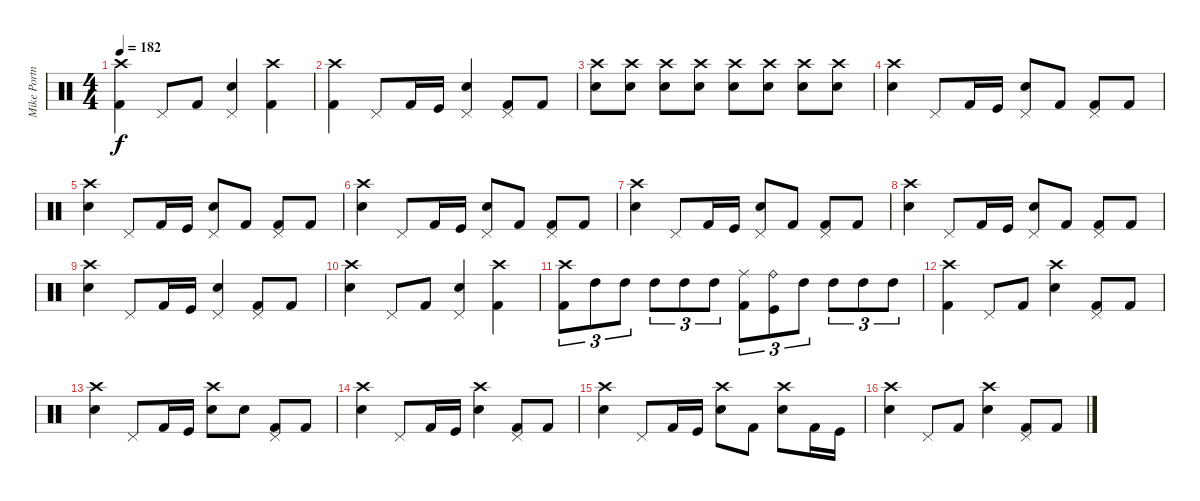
\track ("Mike Portnoy" "Mike Portn") {instrument percussion}
\staff {score}
\articulation defaults
\ts (4 4)
\tempo 182
\clef neutral
\ks c
("Crash high (hit)" "Kick (hit) 2").4{dy f} "Pedal Hi-Hat (hit)".8 "Kick (hit) 2".8 ("Pedal Hi-Hat (hit)" "Electric Snare (hit)").4 ("Crash high (hit)" "Kick (hit) 2").4 |
("Crash high (hit)" "Kick (hit) 2").4 "Pedal Hi-Hat (hit)".8 "Kick (hit) 2".16 "Kick (hit)".16 ("Pedal Hi-Hat (hit)" "Electric Snare (hit)").4 ("Pedal Hi-Hat (hit)" "Kick (hit) 2").8 "Kick (hit) 2".8 |
("Crash high (hit)" "Electric Snare (hit)").8 ("Crash high (hit)" "Electric Snare (hit)").8 ("Crash high (hit)" "Electric Snare (hit)").8 ("Crash high (hit)" "Electric Snare (hit)").8 ("Crash high (hit)" "Electric Snare (hit)").8 ("Crash high (hit)" "Electric Snare (hit)").8 ("Crash high (hit)" "Electric Snare (hit)").8 ("Crash high (hit)" "Electric Snare (hit)").8 |
("Crash high (hit)" "Electric Snare (hit)").4 "Pedal Hi-Hat (hit)".8 "Kick (hit) 2".16 "Kick (hit)".16 ("Pedal Hi-Hat (hit)" "Electric Snare (hit)").8 "Kick (hit) 2".8 ("Pedal Hi-Hat (hit)" "Kick (hit) 2").8 "Kick (hit) 2".8 |
("Crash high (hit)" "Electric Snare (hit)").4 "Pedal Hi-Hat (hit)".8 "Kick (hit) 2".16 "Kick (hit)".16 ("Pedal Hi-Hat (hit)" "Electric Snare (hit)").8 "Kick (hit) 2".8 ("Pedal Hi-Hat (hit)" "Kick (hit) 2").8 "Kick (hit) 2".8 |
("Crash high (hit)" "Electric Snare (hit)").4 "Pedal Hi-Hat (hit)".8 "Kick (hit) 2".16 "Kick (hit)".16 ("Pedal Hi-Hat (hit)" "Electric Snare (hit)").8 "Kick (hit) 2".8 ("Pedal Hi-Hat (hit)" "Kick (hit) 2").8 "Kick (hit) 2".8 |
("Crash high (hit)" "Electric Snare (hit)").4 "Pedal Hi-Hat (hit)".8 "Kick (hit) 2".16 "Kick (hit)".16 ("Pedal Hi-Hat (hit)" "Electric Snare (hit)").8 "Kick (hit) 2".8 ("Pedal Hi-Hat (hit)" "Kick (hit) 2").8 "Kick (hit) 2".8 |
("Crash high (hit)" "Electric Snare (hit)").4 "Pedal Hi-Hat (hit)".8 "Kick (hit) 2".16 "Kick (hit)".16 ("Pedal Hi-Hat (hit)" "Electric Snare (hit)").8 "Kick (hit) 2".8 ("Pedal Hi-Hat (hit)" "Kick (hit) 2").8 "Kick (hit) 2".8 |
("Crash high (hit)" "Electric Snare (hit)").4 "Pedal Hi-Hat (hit)".8 "Kick (hit) 2".16 "Kick (hit)".16 ("Pedal Hi-Hat (hit)" "Electric Snare (hit)").4 ("Pedal Hi-Hat (hit)" "Kick (hit) 2").8 "Kick (hit) 2".8 |
("Crash high (hit)" "Electric Snare (hit)").4 "Pedal Hi-Hat (hit)".8 "Kick (hit) 2".8 ("Pedal Hi-Hat (hit)" "Electric Snare (hit)").4 ("Crash high (hit)" "Kick (hit) 2").4 |
("Crash high (hit)" "Kick (hit) 2").8{tu (3 2)} "High Tom (hit)".8{tu (3 2)} "High Tom (hit)".8{tu (3 2)} "High Tom (hit)".8{tu (3 2)} "High Tom (hit)".8{tu (3 2)} "High Tom (hit)".8{tu (3 2)} ("Ride (middle)" "Kick (hit) 2").8{tu (3 2)} ("Ride (bell)" "Kick (hit)").8{tu (3 2)} "High Tom (hit)".8{tu (3 2)} "High Tom (hit)".8{tu (3 2)} "High Tom (hit)".8{tu (3 2)} "High Tom (hit)".8{tu (3 2)} |
("Crash high (hit)" "Kick (hit) 2").4 "Pedal Hi-Hat (hit)".8 "Kick (hit) 2".8 ("Crash high (hit)" "Electric Snare (hit)").4 ("Pedal Hi-Hat (hit)" "Kick (hit) 2").8 "Kick (hit) 2".8 |
("Crash high (hit)" "Electric Snare (hit)").4 "Pedal Hi-Hat (hit)".8 "Kick (hit) 2".16 "Kick (hit)".16 ("Crash high (hit)" "Electric Snare (hit)").8 "Electric Snare (hit)".8 ("Pedal Hi-Hat (hit)" "Kick (hit) 2").8 "Kick (hit) 2".8 |
("Crash high (hit)" "Electric Snare (hit)").4 "Pedal Hi-Hat (hit)".8 "Kick (hit) 2".16 "Kick (hit)".16 ("Crash high (hit)" "Electric Snare (hit)").4 ("Pedal Hi-Hat (hit)" "Kick (hit) 2").8 "Kick (hit) 2".8 |
("Crash high (hit)" "Electric Snare (hit)").4 "Pedal Hi-Hat (hit)".8 "Kick (hit) 2".16 "Kick (hit)".16 ("Crash high (hit)" "Electric Snare (hit)").8 "Kick (hit) 2".8 ("Crash high (hit)" "Electric Snare (hit)").8 "Kick (hit) 2".16 "Kick (hit)".16 |
("Crash high (hit)" "Electric Snare (hit)").4 "Pedal Hi-Hat (hit)".8 "Kick (hit) 2".8 ("Crash high (hit)" "Electric Snare (hit)").4 ("Pedal Hi-Hat (hit)" "Kick (hit) 2").8 "Kick (hit) 2".8
